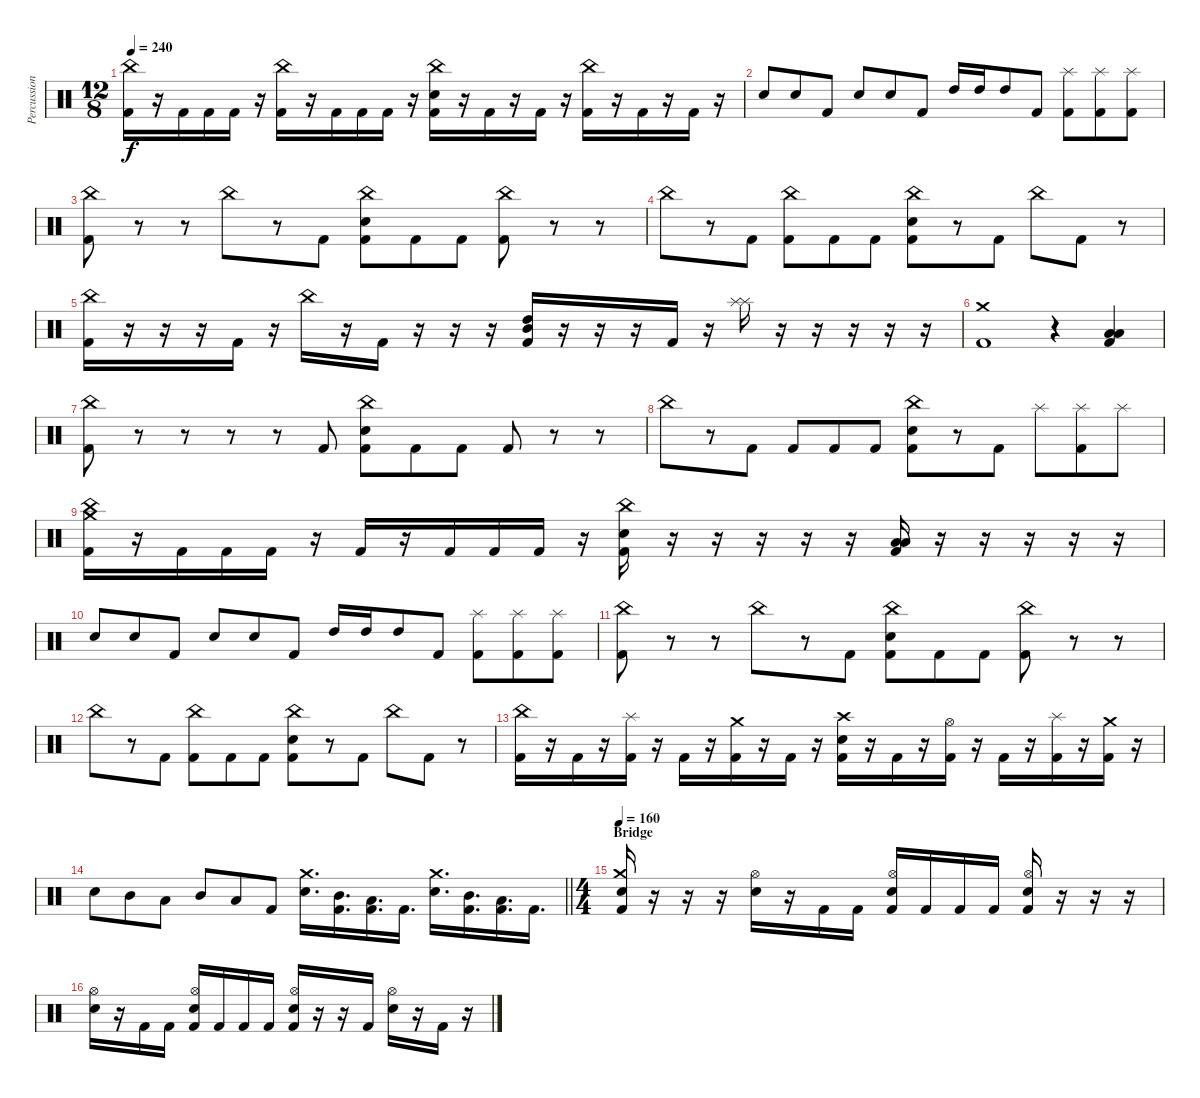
\track ("Percussion" "Percussion") {instrument percussion}
\staff {score}
\articulation defaults
\ts (12 8)
\tempo 240
\clef neutral
\ks c
("China (hit)" "Kick (hit) 2").16{dy f} r.16 "Kick (hit) 2".16 "Kick (hit) 2".16 "Kick (hit) 2".16 r.16 ("China (hit)" "Kick (hit) 2").16 r.16 "Kick (hit) 2".16 "Kick (hit) 2".16 "Kick (hit) 2".16 r.16 ("China (hit)" "Electric Snare (hit)" "Kick (hit) 2").16 r.16 "Kick (hit) 2".16 r.16 "Kick (hit) 2".16 r.16 ("China (hit)" "Kick (hit) 2").16 r.16 "Kick (hit) 2".16 r.16 "Kick (hit) 2".16 r.16 |
"Electric Snare (hit)".8 "Electric Snare (hit)".8 "Kick (hit) 2".8 "Electric Snare (hit)".8 "Electric Snare (hit)".8 "Kick (hit) 2".8 "High Tom (hit)".16 "High Tom (hit)".16 "High Tom (hit)".8 "Kick (hit) 2".8 ("Splash (hit)" "Kick (hit) 2").8 ("Splash (hit)" "Kick (hit) 2").8 ("Splash (hit)" "Kick (hit) 2").8 |
("China (hit)" "Kick (hit) 2").8 r.8 r.8 "China (hit)".8 r.8 "Kick (hit) 2".8 ("China (hit)" "Electric Snare (hit)" "Kick (hit) 2").8 "Kick (hit) 2".8 "Kick (hit) 2".8 ("China (hit)" "Kick (hit) 2").8 r.8 r.8 |
"China (hit)".8 r.8 "Kick (hit) 2".8 ("China (hit)" "Kick (hit) 2").8 "Kick (hit) 2".8 "Kick (hit) 2".8 ("China (hit)" "Electric Snare (hit)" "Kick (hit) 2").8 r.8 "Kick (hit) 2".8 "China (hit)".8 "Kick (hit) 2".8 r.8 |
("China (hit)" "Kick (hit) 2").16 r.16 r.16 r.16 "Kick (hit) 2".16 r.16 "China (hit)".16 r.16 "Kick (hit) 2".16 r.16 r.16 r.16 ("High Tom (hit)" "Mid Tom (hit)" "Kick (hit) 2").16 r.16 r.16 r.16 "Kick (hit) 2".16 r.16 ("Splash (hit)" "Splash (hit)").16 r.16 r.16 r.16 r.16 r.16 |
("Crash medium (hit)" "Kick (hit) 2").1 r.4 ("Low Floor Tom (hit)" "Low Tom (hit)" "Kick (hit) 2").4 |
("China (hit)" "Kick (hit) 2").8 r.8 r.8 r.8 r.8 "Kick (hit) 2".8 ("China (hit)" "Electric Snare (hit)" "Kick (hit) 2").8 "Kick (hit) 2".8 "Kick (hit) 2".8 "Kick (hit) 2".8 r.8 r.8 |
"China (hit)".8 r.8 "Kick (hit) 2".8 "Kick (hit) 2".8 "Kick (hit) 2".8 "Kick (hit) 2".8 ("China (hit)" "Electric Snare (hit)" "Kick (hit) 2").8 r.8 "Kick (hit) 2".8 "Splash (hit)".8 ("Splash (hit)" "Kick (hit) 2").8 "Splash (hit)".8 |
("China (hit)" "Crash medium (hit)" "Kick (hit) 2").16 r.16 "Kick (hit) 2".16 "Kick (hit) 2".16 "Kick (hit) 2".16 r.16 "Kick (hit) 2".16 r.16 "Kick (hit) 2".16 "Kick (hit) 2".16 "Kick (hit) 2".16 r.16 ("China (hit)" "Electric Snare (hit)" "Kick (hit) 2").16 r.16 r.16 r.16 r.16 r.16 ("Low Tom (hit)" "Low Floor Tom (hit)" "Kick (hit) 2").16 r.16 r.16 r.16 r.16 r.16 |
"Electric Snare (hit)".8 "Electric Snare (hit)".8 "Kick (hit) 2".8 "Electric Snare (hit)".8 "Electric Snare (hit)".8 "Kick (hit) 2".8 "High Tom (hit)".16 "High Tom (hit)".16 "High Tom (hit)".8 "Kick (hit) 2".8 ("Splash (hit)" "Kick (hit) 2").8 ("Splash (hit)" "Kick (hit) 2").8 ("Splash (hit)" "Kick (hit) 2").8 |
("China (hit)" "Kick (hit) 2").8 r.8 r.8 "China (hit)".8 r.8 "Kick (hit) 2".8 ("China (hit)" "Electric Snare (hit)" "Kick (hit) 2").8 "Kick (hit) 2".8 "Kick (hit) 2".8 ("China (hit)" "Kick (hit) 2").8 r.8 r.8 |
"China (hit)".8 r.8 "Kick (hit) 2".8 ("China (hit)" "Kick (hit) 2").8 "Kick (hit) 2".8 "Kick (hit) 2".8 ("China (hit)" "Electric Snare (hit)" "Kick (hit) 2").8 r.8 "Kick (hit) 2".8 "China (hit)".8 "Kick (hit) 2".8 r.8 |
("China (hit)" "Kick (hit) 2").16 r.16 "Kick (hit) 2".16 r.16 ("Splash (hit)" "Kick (hit) 2").16 r.16 "Kick (hit) 2".16 r.16 ("Crash medium (hit)" "Kick (hit) 2").16 r.16 "Kick (hit) 2".16 r.16 ("Crash high (hit)" "Electric Snare (hit)" "Kick (hit) 2").16 r.16 "Kick (hit) 2".16 r.16 ("Hi-Hat (open)" "Kick (hit) 2").16 r.16 "Kick (hit) 2".16 r.16 ("Splash (hit)" "Kick (hit) 2").16 r.16 ("Crash medium (hit)" "Kick (hit) 2").16 r.16 |
\barLineRight lightlight "Snare (hit) 2".8 "Mid Tom (hit)".8 "Low Tom (hit)".8 "Mid Tom (hit)".8 "Low Tom (hit)".8 "Kick (hit) 2".8
("Crash medium (hit)" "Snare (hit) 2").16{d} ("Mid Tom (hit)" "Kick (hit) 2").16{d} ("Low Tom (hit)" "Kick (hit) 2").16{d} "Kick (hit) 2".16{d} ("Crash medium (hit)" "Snare (hit) 2").16{d} ("Mid Tom (hit)" "Kick (hit) 2").16{d} ("Low Tom (hit)" "Kick (hit) 2").16{d} "Kick (hit) 2".16{d} |
\ts (4 4)
\section ("" "Bridge")
\tempo 160
("Crash medium (hit)" "Snare (hit) 2" "Kick (hit) 2").16 r.16 r.16 r.16 ("Hi-Hat (open)" "Snare (hit) 2").16 r.16 "Kick (hit) 2".16 "Kick (hit) 2".16 ("Hi-Hat (open)" "Snare (hit) 2" "Kick (hit) 2").16 "Kick (hit) 2".16 "Kick (hit) 2".16 "Kick (hit) 2".16 ("Hi-Hat (open)" "Snare (hit) 2" "Kick (hit) 2").16 r.16 r.16 r.16 |
("Hi-Hat (open)" "Snare (hit) 2").16 r.16 "Kick (hit) 2".16 "Kick (hit) 2".16 ("Hi-Hat (open)" "Snare (hit) 2" "Kick (hit) 2").16 "Kick (hit) 2".16 "Kick (hit) 2".16 "Kick (hit) 2".16 ("Hi-Hat (open)" "Snare (hit) 2" "Kick (hit) 2").16 r.16 r.16 "Kick (hit) 2".16 ("Hi-Hat (open)" "Snare (hit) 2").16 r.16 "Kick (hit) 2".16 r.16
